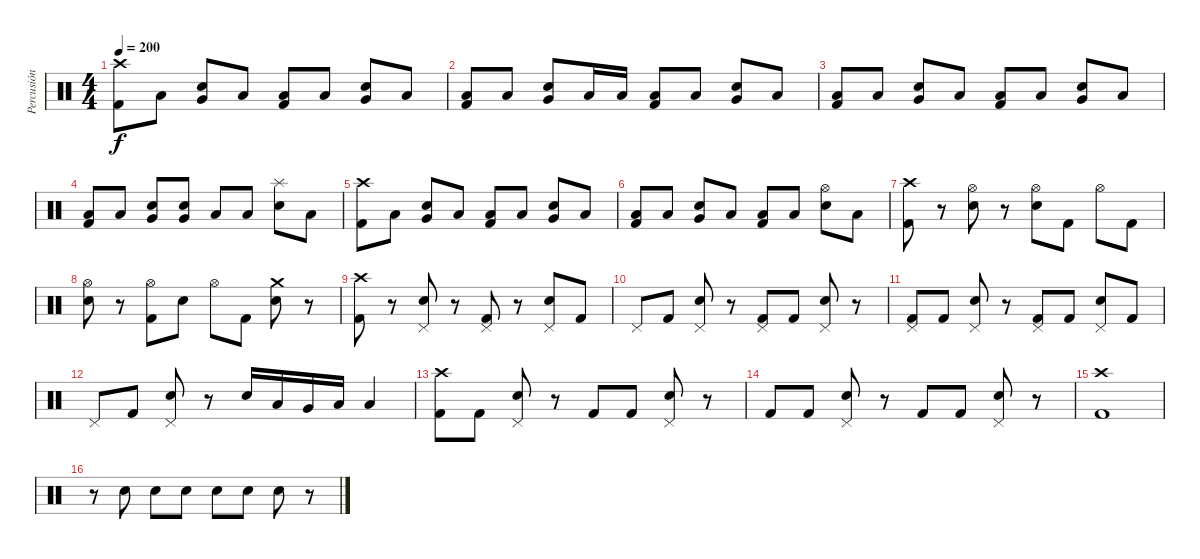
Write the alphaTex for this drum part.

\track ("Percusión" "Percusión") {instrument percussion}
\staff {score}
\articulation defaults
\ts (4 4)
\tempo 200
\clef neutral
\ks c
("Kick (hit) 2" "Crash high (hit)").8{dy f} "Low Tom (hit)".8 ("Snare (hit) 2" "Very Low Tom (hit)").8 "Low Tom (hit)".8 ("Kick (hit) 2" "Low Tom (hit)").8 "Low Tom (hit)".8 ("Snare (hit) 2" "Very Low Tom (hit)").8 "Low Tom (hit)".8 |
("Kick (hit) 2" "Low Tom (hit)").8 "Low Tom (hit)".8 ("Snare (hit) 2" "Very Low Tom (hit)").8 "Low Tom (hit)".16 "Low Tom (hit)".16 ("Kick (hit) 2" "Low Tom (hit)").8 "Low Tom (hit)".8 ("Snare (hit) 2" "Very Low Tom (hit)").8 "Low Tom (hit)".8 |
("Kick (hit) 2" "Low Tom (hit)").8 "Low Tom (hit)".8 ("Snare (hit) 2" "Very Low Tom (hit)").8 "Low Tom (hit)".8 ("Kick (hit) 2" "Low Tom (hit)").8 "Low Tom (hit)".8 ("Snare (hit) 2" "Very Low Tom (hit)").8 "Low Tom (hit)".8 |
("Kick (hit) 2" "Low Tom (hit)").8 "Low Tom (hit)".8 ("Snare (hit) 2" "Very Low Tom (hit)").8 ("Snare (hit) 2" "Very Low Tom (hit)").8 "Low Tom (hit)".8 "Low Tom (hit)".8 ("Snare (hit) 2" "Splash (hit)").8 "Low Tom (hit)".8 |
("Kick (hit) 2" "Crash high (hit)").8 "Low Tom (hit)".8 ("Snare (hit) 2" "Very Low Tom (hit)").8 "Low Tom (hit)".8 ("Kick (hit) 2" "Low Tom (hit)").8 "Low Tom (hit)".8 ("Snare (hit) 2" "Very Low Tom (hit)").8 "Low Tom (hit)".8 |
("Kick (hit) 2" "Low Tom (hit)").8 "Low Tom (hit)".8 ("Snare (hit) 2" "Very Low Tom (hit)").8 "Low Tom (hit)".8 ("Kick (hit) 2" "Low Tom (hit)").8 "Low Tom (hit)".8 ("Snare (hit) 2" "Hi-Hat (open)").8 "Low Tom (hit)".8 |
("Kick (hit) 2" "Crash high (hit)").8 r.8 ("Snare (hit) 2" "Hi-Hat (open)").8 r.8 ("Snare (hit) 2" "Hi-Hat (open)").8 "Kick (hit) 2".8 "Hi-Hat (open)".8 "Kick (hit) 2".8 |
("Snare (hit) 2" "Hi-Hat (open)").8 r.8 ("Kick (hit) 2" "Hi-Hat (open)").8 "Snare (hit) 2".8 "Hi-Hat (open)".8 "Kick (hit) 2".8 ("Snare (hit) 2" "Crash medium (hit)").8 r.8 |
("Kick (hit) 2" "Crash high (hit)").8 r.8 ("Snare (hit) 2" "Pedal Hi-Hat (hit)").8 r.8 ("Kick (hit) 2" "Pedal Hi-Hat (hit)").8 r.8 ("Snare (hit) 2" "Pedal Hi-Hat (hit)").8 "Kick (hit) 2".8 |
"Pedal Hi-Hat (hit)".8 "Kick (hit) 2".8 ("Snare (hit) 2" "Pedal Hi-Hat (hit)").8 r.8 ("Kick (hit) 2" "Pedal Hi-Hat (hit)").8 "Kick (hit) 2".8 ("Snare (hit) 2" "Pedal Hi-Hat (hit)").8 r.8 |
("Kick (hit) 2" "Pedal Hi-Hat (hit)").8 "Kick (hit) 2".8 ("Snare (hit) 2" "Pedal Hi-Hat (hit)").8 r.8 ("Kick (hit) 2" "Pedal Hi-Hat (hit)").8 "Kick (hit) 2".8 ("Snare (hit) 2" "Pedal Hi-Hat (hit)").8 "Kick (hit) 2".8 |
"Pedal Hi-Hat (hit)".8 "Kick (hit) 2".8 ("Snare (hit) 2" "Pedal Hi-Hat (hit)").8 r.8 "Snare (hit) 2".16 "Low Tom (hit)".16 "Very Low Tom (hit)".16 "Low Floor Tom (hit)".16 "Low Floor Tom (hit)".4 |
("Kick (hit) 2" "Crash high (hit)").8 "Kick (hit) 2".8 ("Snare (hit) 2" "Pedal Hi-Hat (hit)").8 r.8 "Kick (hit) 2".8 "Kick (hit) 2".8 ("Snare (hit) 2" "Pedal Hi-Hat (hit)").8 r.8 |
"Kick (hit) 2".8 "Kick (hit) 2".8 ("Snare (hit) 2" "Pedal Hi-Hat (hit)").8 r.8 "Kick (hit) 2".8 "Kick (hit) 2".8 ("Snare (hit) 2" "Pedal Hi-Hat (hit)").8 r.8 |
("Kick (hit) 2" "Crash high (hit)").1 |
r.8 "Snare (hit) 2".8 "Snare (hit) 2".8 "Snare (hit) 2".8 "Snare (hit) 2".8 "Snare (hit) 2".8 "Snare (hit) 2".8 r.8
